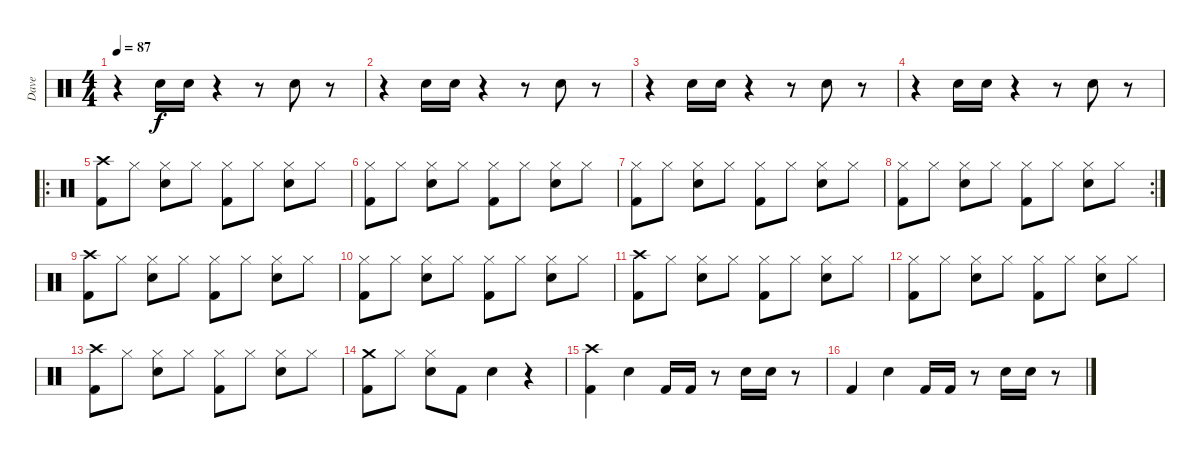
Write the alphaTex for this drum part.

\track ("Dave" "Dave") {instrument percussion}
\staff {score}
\articulation defaults
\ts (4 4)
\tempo 87
\clef neutral
\ks c
r.4{dy f} "Snare (hit) 2".16 "Snare (hit) 2".16 r.4 r.8 "Snare (hit) 2".8 r.8 |
r.4 "Snare (hit) 2".16 "Snare (hit) 2".16 r.4 r.8 "Snare (hit) 2".8 r.8 |
r.4 "Snare (hit) 2".16 "Snare (hit) 2".16 r.4 r.8 "Snare (hit) 2".8 r.8 |
r.4 "Snare (hit) 2".16 "Snare (hit) 2".16 r.4 r.8 "Snare (hit) 2".8 r.8 |
\ro
("Crash high (hit)" "Kick (hit) 2").8 "Hi-Hat (closed)".8 ("Hi-Hat (closed)" "Snare (hit) 2").8 "Hi-Hat (closed)".8 ("Hi-Hat (closed)" "Kick (hit) 2").8 "Hi-Hat (closed)".8 ("Hi-Hat (closed)" "Snare (hit) 2").8 "Hi-Hat (closed)".8 |
("Hi-Hat (closed)" "Kick (hit) 2").8 "Hi-Hat (closed)".8 ("Hi-Hat (closed)" "Snare (hit) 2").8 "Hi-Hat (closed)".8 ("Hi-Hat (closed)" "Kick (hit) 2").8 "Hi-Hat (closed)".8 ("Hi-Hat (closed)" "Snare (hit) 2").8 "Hi-Hat (closed)".8 |
("Hi-Hat (closed)" "Kick (hit) 2").8 "Hi-Hat (closed)".8 ("Hi-Hat (closed)" "Snare (hit) 2").8 "Hi-Hat (closed)".8 ("Hi-Hat (closed)" "Kick (hit) 2").8 "Hi-Hat (closed)".8 ("Hi-Hat (closed)" "Snare (hit) 2").8 "Hi-Hat (closed)".8 |
\rc 2
("Hi-Hat (closed)" "Kick (hit) 2").8 "Hi-Hat (closed)".8 ("Hi-Hat (closed)" "Snare (hit) 2").8 "Hi-Hat (closed)".8 ("Hi-Hat (closed)" "Kick (hit) 2").8 "Hi-Hat (closed)".8 ("Hi-Hat (closed)" "Snare (hit) 2").8 "Hi-Hat (closed)".8 |
("Crash high (hit)" "Kick (hit) 2").8 "Hi-Hat (closed)".8 ("Hi-Hat (closed)" "Snare (hit) 2").8 "Hi-Hat (closed)".8 ("Hi-Hat (closed)" "Kick (hit) 2").8 "Hi-Hat (closed)".8 ("Hi-Hat (closed)" "Snare (hit) 2").8 "Hi-Hat (closed)".8 |
("Hi-Hat (closed)" "Kick (hit) 2").8 "Hi-Hat (closed)".8 ("Hi-Hat (closed)" "Snare (hit) 2").8 "Hi-Hat (closed)".8 ("Hi-Hat (closed)" "Kick (hit) 2").8 "Hi-Hat (closed)".8 ("Hi-Hat (closed)" "Snare (hit) 2").8 "Hi-Hat (closed)".8 |
("Crash high (hit)" "Kick (hit) 2").8 "Hi-Hat (closed)".8 ("Hi-Hat (closed)" "Snare (hit) 2").8 "Hi-Hat (closed)".8 ("Hi-Hat (closed)" "Kick (hit) 2").8 "Hi-Hat (closed)".8 ("Hi-Hat (closed)" "Snare (hit) 2").8 "Hi-Hat (closed)".8 |
("Hi-Hat (closed)" "Kick (hit) 2").8 "Hi-Hat (closed)".8 ("Hi-Hat (closed)" "Snare (hit) 2").8 "Hi-Hat (closed)".8 ("Hi-Hat (closed)" "Kick (hit) 2").8 "Hi-Hat (closed)".8 ("Hi-Hat (closed)" "Snare (hit) 2").8 "Hi-Hat (closed)".8 |
("Crash high (hit)" "Kick (hit) 2").8 "Hi-Hat (closed)".8 ("Hi-Hat (closed)" "Snare (hit) 2").8 "Hi-Hat (closed)".8 ("Hi-Hat (closed)" "Kick (hit) 2").8 "Hi-Hat (closed)".8 ("Hi-Hat (closed)" "Snare (hit) 2").8 "Hi-Hat (closed)".8 |
("Crash medium (hit)" "Kick (hit) 2").8 "Hi-Hat (closed)".8 ("Hi-Hat (closed)" "Snare (hit) 2").8 "Kick (hit) 2".8 "Snare (hit) 2".4 r.4 |
("Crash high (hit)" "Kick (hit) 2").4 "Snare (hit) 2".4 "Kick (hit) 2".16 "Kick (hit) 2".16 r.8 "Snare (hit) 2".16 "Snare (hit) 2".16 r.8 |
"Kick (hit) 2".4 "Snare (hit) 2".4 "Kick (hit) 2".16 "Kick (hit) 2".16 r.8 "Snare (hit) 2".16 "Snare (hit) 2".16 r.8
